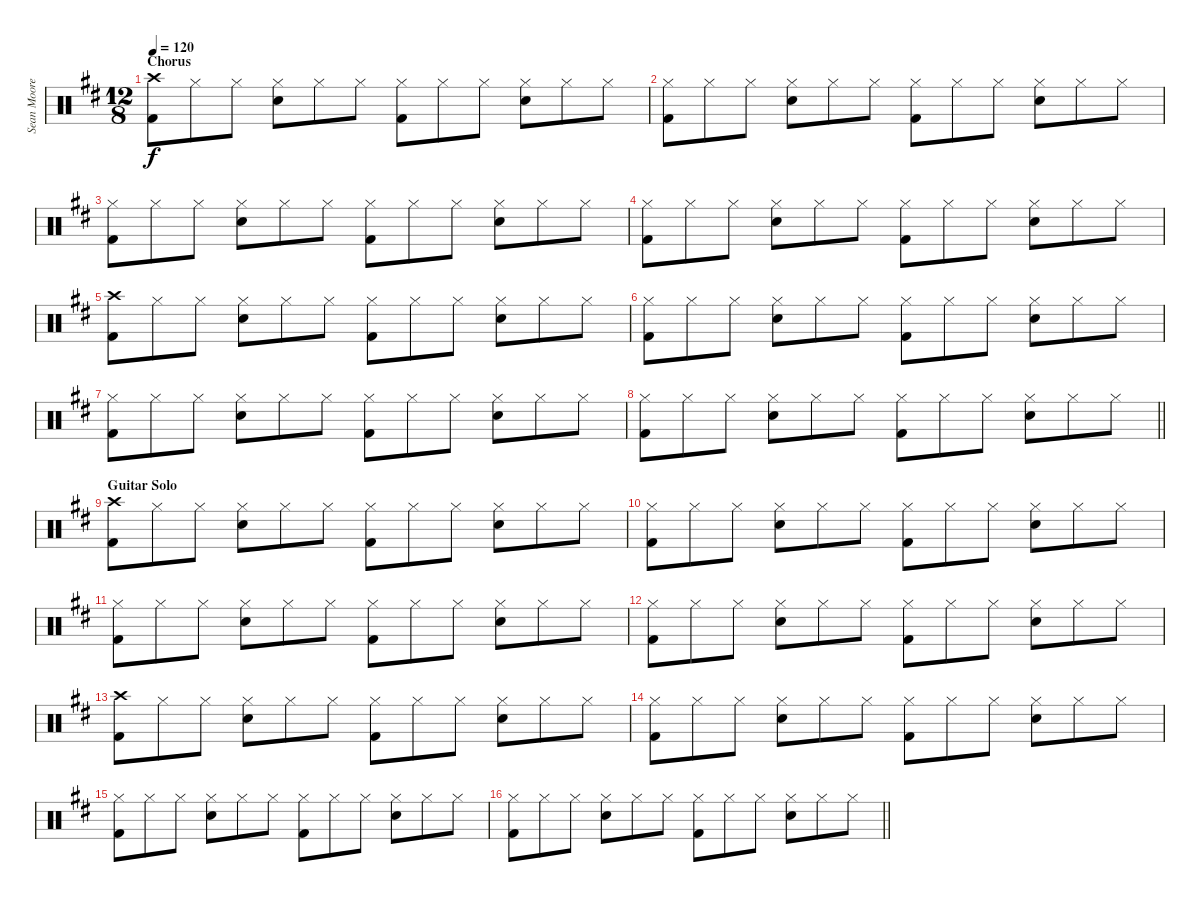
\track ("Sean Moore (Drums)" "Sean Moore") {instrument percussion}
\staff {score}
\articulation defaults
\ts (12 8)
\section ("" "Chorus")
\tempo 120
\clef neutral
\ks d
("Crash high (hit)" "Kick (hit) 2").8{dy f} "Hi-Hat (closed)".8 "Hi-Hat (closed)".8 ("Hi-Hat (closed)" "Electric Snare (hit)").8 "Hi-Hat (closed)".8 "Hi-Hat (closed)".8 ("Hi-Hat (closed)" "Kick (hit) 2").8 "Hi-Hat (closed)".8 "Hi-Hat (closed)".8 ("Hi-Hat (closed)" "Electric Snare (hit)").8 "Hi-Hat (closed)".8 "Hi-Hat (closed)".8 |
("Hi-Hat (closed)" "Kick (hit) 2").8 "Hi-Hat (closed)".8 "Hi-Hat (closed)".8 ("Hi-Hat (closed)" "Electric Snare (hit)").8 "Hi-Hat (closed)".8 "Hi-Hat (closed)".8 ("Hi-Hat (closed)" "Kick (hit) 2").8 "Hi-Hat (closed)".8 "Hi-Hat (closed)".8 ("Hi-Hat (closed)" "Electric Snare (hit)").8 "Hi-Hat (closed)".8 "Hi-Hat (closed)".8 |
("Hi-Hat (closed)" "Kick (hit) 2").8 "Hi-Hat (closed)".8 "Hi-Hat (closed)".8 ("Hi-Hat (closed)" "Electric Snare (hit)").8 "Hi-Hat (closed)".8 "Hi-Hat (closed)".8 ("Hi-Hat (closed)" "Kick (hit) 2").8 "Hi-Hat (closed)".8 "Hi-Hat (closed)".8 ("Hi-Hat (closed)" "Electric Snare (hit)").8 "Hi-Hat (closed)".8 "Hi-Hat (closed)".8 |
("Hi-Hat (closed)" "Kick (hit) 2").8 "Hi-Hat (closed)".8 "Hi-Hat (closed)".8 ("Hi-Hat (closed)" "Electric Snare (hit)").8 "Hi-Hat (closed)".8 "Hi-Hat (closed)".8 ("Hi-Hat (closed)" "Kick (hit) 2").8 "Hi-Hat (closed)".8 "Hi-Hat (closed)".8 ("Hi-Hat (closed)" "Electric Snare (hit)").8 "Hi-Hat (closed)".8 "Hi-Hat (closed)".8 |
("Crash high (hit)" "Kick (hit) 2").8 "Hi-Hat (closed)".8 "Hi-Hat (closed)".8 ("Hi-Hat (closed)" "Electric Snare (hit)").8 "Hi-Hat (closed)".8 "Hi-Hat (closed)".8 ("Hi-Hat (closed)" "Kick (hit) 2").8 "Hi-Hat (closed)".8 "Hi-Hat (closed)".8 ("Hi-Hat (closed)" "Electric Snare (hit)").8 "Hi-Hat (closed)".8 "Hi-Hat (closed)".8 |
("Hi-Hat (closed)" "Kick (hit) 2").8 "Hi-Hat (closed)".8 "Hi-Hat (closed)".8 ("Hi-Hat (closed)" "Electric Snare (hit)").8 "Hi-Hat (closed)".8 "Hi-Hat (closed)".8 ("Hi-Hat (closed)" "Kick (hit) 2").8 "Hi-Hat (closed)".8 "Hi-Hat (closed)".8 ("Hi-Hat (closed)" "Electric Snare (hit)").8 "Hi-Hat (closed)".8 "Hi-Hat (closed)".8 |
("Hi-Hat (closed)" "Kick (hit) 2").8 "Hi-Hat (closed)".8 "Hi-Hat (closed)".8 ("Hi-Hat (closed)" "Electric Snare (hit)").8 "Hi-Hat (closed)".8 "Hi-Hat (closed)".8 ("Hi-Hat (closed)" "Kick (hit) 2").8 "Hi-Hat (closed)".8 "Hi-Hat (closed)".8 ("Hi-Hat (closed)" "Electric Snare (hit)").8 "Hi-Hat (closed)".8 "Hi-Hat (closed)".8 |
\barLineRight lightlight
("Hi-Hat (closed)" "Kick (hit) 2").8 "Hi-Hat (closed)".8 "Hi-Hat (closed)".8 ("Hi-Hat (closed)" "Electric Snare (hit)").8 "Hi-Hat (closed)".8 "Hi-Hat (closed)".8 ("Hi-Hat (closed)" "Kick (hit) 2").8 "Hi-Hat (closed)".8 "Hi-Hat (closed)".8 ("Hi-Hat (closed)" "Electric Snare (hit)").8 "Hi-Hat (closed)".8 "Hi-Hat (closed)".8 |
\section ("" "Guitar Solo")
("Crash high (hit)" "Kick (hit) 2").8 "Hi-Hat (closed)".8 "Hi-Hat (closed)".8 ("Hi-Hat (closed)" "Electric Snare (hit)").8 "Hi-Hat (closed)".8 "Hi-Hat (closed)".8 ("Hi-Hat (closed)" "Kick (hit) 2").8 "Hi-Hat (closed)".8 "Hi-Hat (closed)".8 ("Hi-Hat (closed)" "Electric Snare (hit)").8 "Hi-Hat (closed)".8 "Hi-Hat (closed)".8 |
("Hi-Hat (closed)" "Kick (hit) 2").8 "Hi-Hat (closed)".8 "Hi-Hat (closed)".8 ("Hi-Hat (closed)" "Electric Snare (hit)").8 "Hi-Hat (closed)".8 "Hi-Hat (closed)".8 ("Hi-Hat (closed)" "Kick (hit) 2").8 "Hi-Hat (closed)".8 "Hi-Hat (closed)".8 ("Hi-Hat (closed)" "Electric Snare (hit)").8 "Hi-Hat (closed)".8 "Hi-Hat (closed)".8 |
("Hi-Hat (closed)" "Kick (hit) 2").8 "Hi-Hat (closed)".8 "Hi-Hat (closed)".8 ("Hi-Hat (closed)" "Electric Snare (hit)").8 "Hi-Hat (closed)".8 "Hi-Hat (closed)".8 ("Hi-Hat (closed)" "Kick (hit) 2").8 "Hi-Hat (closed)".8 "Hi-Hat (closed)".8 ("Hi-Hat (closed)" "Electric Snare (hit)").8 "Hi-Hat (closed)".8 "Hi-Hat (closed)".8 |
("Hi-Hat (closed)" "Kick (hit) 2").8 "Hi-Hat (closed)".8 "Hi-Hat (closed)".8 ("Hi-Hat (closed)" "Electric Snare (hit)").8 "Hi-Hat (closed)".8 "Hi-Hat (closed)".8 ("Hi-Hat (closed)" "Kick (hit) 2").8 "Hi-Hat (closed)".8 "Hi-Hat (closed)".8 ("Hi-Hat (closed)" "Electric Snare (hit)").8 "Hi-Hat (closed)".8 "Hi-Hat (closed)".8 |
("Crash high (hit)" "Kick (hit) 2").8 "Hi-Hat (closed)".8 "Hi-Hat (closed)".8 ("Hi-Hat (closed)" "Electric Snare (hit)").8 "Hi-Hat (closed)".8 "Hi-Hat (closed)".8 ("Hi-Hat (closed)" "Kick (hit) 2").8 "Hi-Hat (closed)".8 "Hi-Hat (closed)".8 ("Hi-Hat (closed)" "Electric Snare (hit)").8 "Hi-Hat (closed)".8 "Hi-Hat (closed)".8 |
("Hi-Hat (closed)" "Kick (hit) 2").8 "Hi-Hat (closed)".8 "Hi-Hat (closed)".8 ("Hi-Hat (closed)" "Electric Snare (hit)").8 "Hi-Hat (closed)".8 "Hi-Hat (closed)".8 ("Hi-Hat (closed)" "Kick (hit) 2").8 "Hi-Hat (closed)".8 "Hi-Hat (closed)".8 ("Hi-Hat (closed)" "Electric Snare (hit)").8 "Hi-Hat (closed)".8 "Hi-Hat (closed)".8 |
("Hi-Hat (closed)" "Kick (hit) 2").8 "Hi-Hat (closed)".8 "Hi-Hat (closed)".8 ("Hi-Hat (closed)" "Electric Snare (hit)").8 "Hi-Hat (closed)".8 "Hi-Hat (closed)".8 ("Hi-Hat (closed)" "Kick (hit) 2").8 "Hi-Hat (closed)".8 "Hi-Hat (closed)".8 ("Hi-Hat (closed)" "Electric Snare (hit)").8 "Hi-Hat (closed)".8 "Hi-Hat (closed)".8 |
\barLineRight lightlight
("Hi-Hat (closed)" "Kick (hit) 2").8 "Hi-Hat (closed)".8 "Hi-Hat (closed)".8 ("Hi-Hat (closed)" "Electric Snare (hit)").8 "Hi-Hat (closed)".8 "Hi-Hat (closed)".8 ("Hi-Hat (closed)" "Kick (hit) 2").8 "Hi-Hat (closed)".8 "Hi-Hat (closed)".8 ("Hi-Hat (closed)" "Electric Snare (hit)").8 "Hi-Hat (closed)".8 "Hi-Hat (closed)".8
